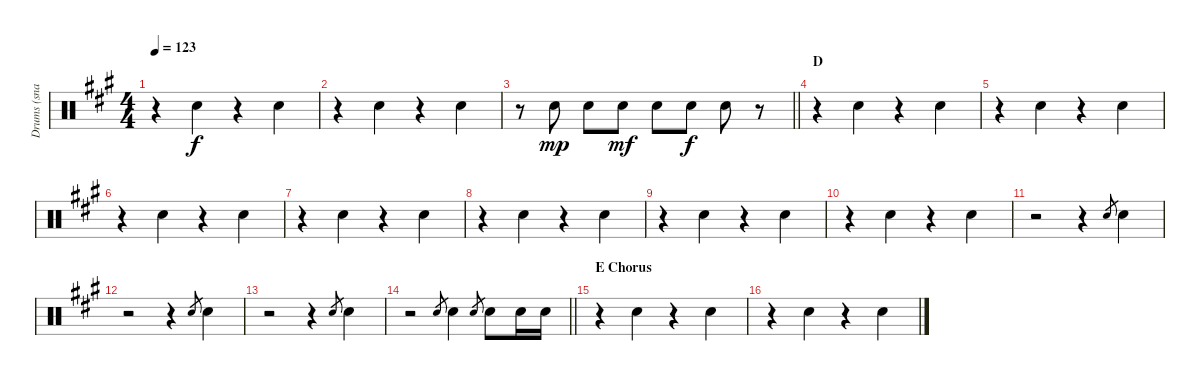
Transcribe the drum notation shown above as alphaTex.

\track ("Drums (snare)" "Drums (sna") {instrument percussion}
\staff {score}
\articulation defaults
\ts (4 4)
\tempo 123
\clef neutral
\ks a
r.4{dy f} "Snare (hit) 2".4 r.4 "Snare (hit) 2".4 |
r.4 "Snare (hit) 2".4 r.4 "Snare (hit) 2".4 |
\barLineRight lightlight
r.8 "Snare (hit) 2".8{dy mp} "Snare (hit) 2".8 "Snare (hit) 2".8{dy mf} "Snare (hit) 2".8 "Snare (hit) 2".8{dy f} "Snare (hit) 2".8 r.8 |
\section ("" "D")
r.4 "Snare (hit) 2".4 r.4 "Snare (hit) 2".4 |
r.4 "Snare (hit) 2".4 r.4 "Snare (hit) 2".4 |
r.4 "Snare (hit) 2".4 r.4 "Snare (hit) 2".4 |
r.4 "Snare (hit) 2".4 r.4 "Snare (hit) 2".4 |
r.4 "Snare (hit) 2".4 r.4 "Snare (hit) 2".4 |
r.4 "Snare (hit) 2".4 r.4 "Snare (hit) 2".4 |
r.4 "Snare (hit) 2".4 r.4 "Snare (hit) 2".4 |
r.2 r.4 "Snare (hit) 2".8{gr} "Snare (hit) 2".4 |
r.2 r.4 "Snare (hit) 2".8{gr} "Snare (hit) 2".4 |
r.2 r.4 "Snare (hit) 2".8{gr} "Snare (hit) 2".4 |
\barLineRight lightlight
r.2 "Snare (hit) 2".8{gr} "Snare (hit) 2".4 "Snare (hit) 2".8{gr} "Snare (hit) 2".8 "Snare (hit) 2".16 "Snare (hit) 2".16 |
\section ("" "E Chorus")
r.4 "Snare (hit) 2".4 r.4 "Snare (hit) 2".4 |
r.4 "Snare (hit) 2".4 r.4 "Snare (hit) 2".4
